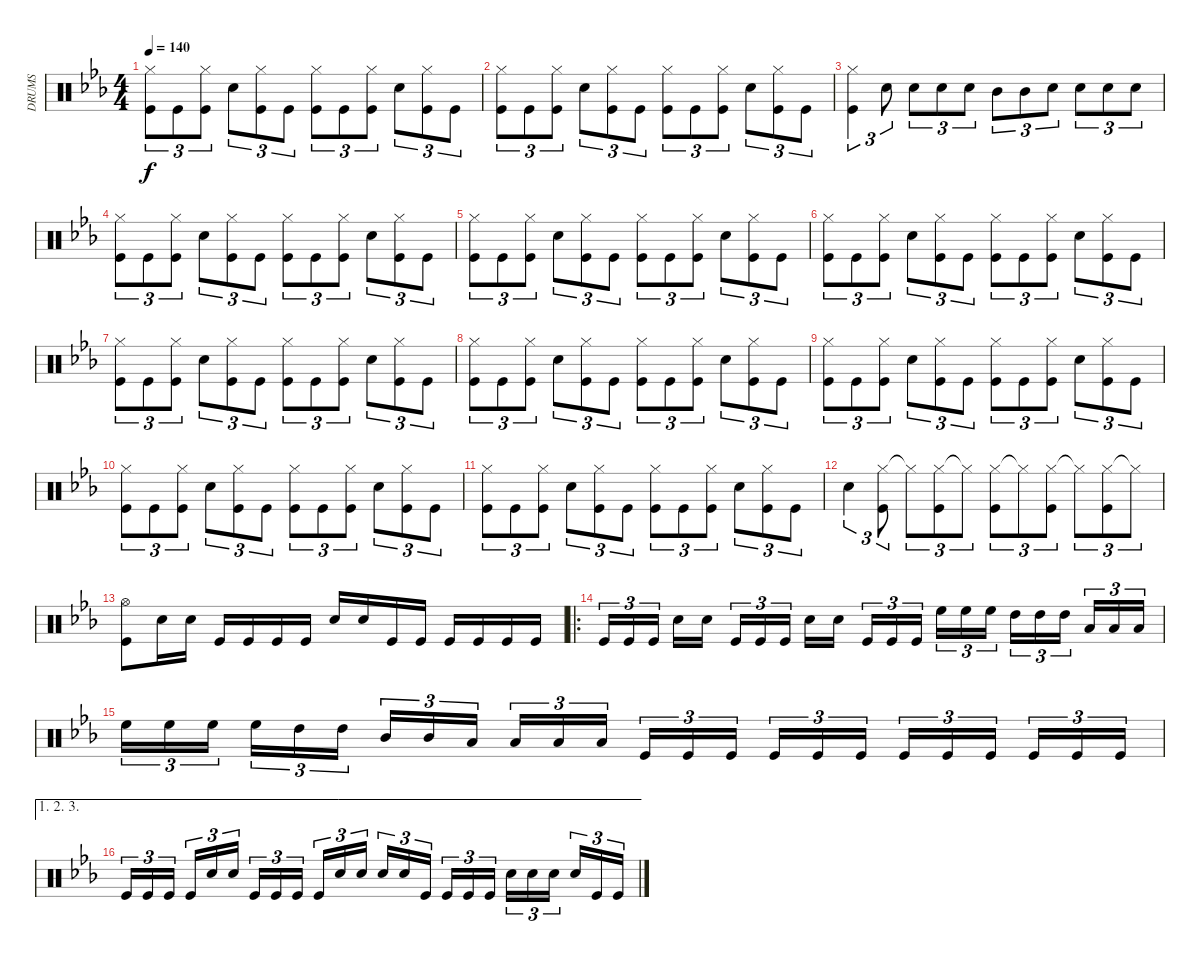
\track ("DRUMS" "DRUMS") {instrument percussion}
\staff {score}
\articulation defaults
\ts (4 4)
\tempo 140
\clef neutral
\ks eb
("Hi-Hat (closed)" "Kick (hit)").8{tu (3 2) dy f} "Kick (hit)".8{tu (3 2)} ("Hi-Hat (closed)" "Kick (hit)").8{tu (3 2)} "Snare (hit) 2".8{tu (3 2)} ("Hi-Hat (closed)" "Kick (hit)").8{tu (3 2)} "Kick (hit)".8{tu (3 2)} ("Hi-Hat (closed)" "Kick (hit)").8{tu (3 2)} "Kick (hit)".8{tu (3 2)} ("Hi-Hat (closed)" "Kick (hit)").8{tu (3 2)} "Snare (hit) 2".8{tu (3 2)} ("Hi-Hat (closed)" "Kick (hit)").8{tu (3 2)} "Kick (hit)".8{tu (3 2)} |
("Hi-Hat (closed)" "Kick (hit)").8{tu (3 2)} "Kick (hit)".8{tu (3 2)} ("Hi-Hat (closed)" "Kick (hit)").8{tu (3 2)} "Snare (hit) 2".8{tu (3 2)} ("Hi-Hat (closed)" "Kick (hit)").8{tu (3 2)} "Kick (hit)".8{tu (3 2)} ("Hi-Hat (closed)" "Kick (hit)").8{tu (3 2)} "Kick (hit)".8{tu (3 2)} ("Hi-Hat (closed)" "Kick (hit)").8{tu (3 2)} "Snare (hit) 2".8{tu (3 2)} ("Hi-Hat (closed)" "Kick (hit)").8{tu (3 2)} "Kick (hit)".8{tu (3 2)} |
("Hi-Hat (closed)" "Kick (hit)").4{tu (3 2)} "Snare (hit) 2".8{tu (3 2)} "Snare (hit) 2".8{tu (3 2)} "Snare (hit) 2".8{tu (3 2)} "Snare (hit) 2".8{tu (3 2)} "Mid Tom (hit)".8{tu (3 2)} "Mid Tom (hit)".8{tu (3 2)} "Snare (hit) 2".8{tu (3 2)} "Snare (hit) 2".8{tu (3 2)} "Snare (hit) 2".8{tu (3 2)} "Snare (hit) 2".8{tu (3 2)} |
("Hi-Hat (closed)" "Kick (hit)").8{tu (3 2)} "Kick (hit)".8{tu (3 2)} ("Hi-Hat (closed)" "Kick (hit)").8{tu (3 2)} "Snare (hit) 2".8{tu (3 2)} ("Hi-Hat (closed)" "Kick (hit)").8{tu (3 2)} "Kick (hit)".8{tu (3 2)} ("Hi-Hat (closed)" "Kick (hit)").8{tu (3 2)} "Kick (hit)".8{tu (3 2)} ("Hi-Hat (closed)" "Kick (hit)").8{tu (3 2)} "Snare (hit) 2".8{tu (3 2)} ("Hi-Hat (closed)" "Kick (hit)").8{tu (3 2)} "Kick (hit)".8{tu (3 2)} |
("Hi-Hat (closed)" "Kick (hit)").8{tu (3 2)} "Kick (hit)".8{tu (3 2)} ("Hi-Hat (closed)" "Kick (hit)").8{tu (3 2)} "Snare (hit) 2".8{tu (3 2)} ("Hi-Hat (closed)" "Kick (hit)").8{tu (3 2)} "Kick (hit)".8{tu (3 2)} ("Hi-Hat (closed)" "Kick (hit)").8{tu (3 2)} "Kick (hit)".8{tu (3 2)} ("Hi-Hat (closed)" "Kick (hit)").8{tu (3 2)} "Snare (hit) 2".8{tu (3 2)} ("Hi-Hat (closed)" "Kick (hit)").8{tu (3 2)} "Kick (hit)".8{tu (3 2)} |
("Hi-Hat (closed)" "Kick (hit)").8{tu (3 2)} "Kick (hit)".8{tu (3 2)} ("Hi-Hat (closed)" "Kick (hit)").8{tu (3 2)} "Snare (hit) 2".8{tu (3 2)} ("Hi-Hat (closed)" "Kick (hit)").8{tu (3 2)} "Kick (hit)".8{tu (3 2)} ("Hi-Hat (closed)" "Kick (hit)").8{tu (3 2)} "Kick (hit)".8{tu (3 2)} ("Hi-Hat (closed)" "Kick (hit)").8{tu (3 2)} "Snare (hit) 2".8{tu (3 2)} ("Hi-Hat (closed)" "Kick (hit)").8{tu (3 2)} "Kick (hit)".8{tu (3 2)} |
("Hi-Hat (closed)" "Kick (hit)").8{tu (3 2)} "Kick (hit)".8{tu (3 2)} ("Hi-Hat (closed)" "Kick (hit)").8{tu (3 2)} "Snare (hit) 2".8{tu (3 2)} ("Hi-Hat (closed)" "Kick (hit)").8{tu (3 2)} "Kick (hit)".8{tu (3 2)} ("Hi-Hat (closed)" "Kick (hit)").8{tu (3 2)} "Kick (hit)".8{tu (3 2)} ("Hi-Hat (closed)" "Kick (hit)").8{tu (3 2)} "Snare (hit) 2".8{tu (3 2)} ("Hi-Hat (closed)" "Kick (hit)").8{tu (3 2)} "Kick (hit)".8{tu (3 2)} |
("Hi-Hat (closed)" "Kick (hit)").8{tu (3 2)} "Kick (hit)".8{tu (3 2)} ("Hi-Hat (closed)" "Kick (hit)").8{tu (3 2)} "Snare (hit) 2".8{tu (3 2)} ("Hi-Hat (closed)" "Kick (hit)").8{tu (3 2)} "Kick (hit)".8{tu (3 2)} ("Hi-Hat (closed)" "Kick (hit)").8{tu (3 2)} "Kick (hit)".8{tu (3 2)} ("Hi-Hat (closed)" "Kick (hit)").8{tu (3 2)} "Snare (hit) 2".8{tu (3 2)} ("Hi-Hat (closed)" "Kick (hit)").8{tu (3 2)} "Kick (hit)".8{tu (3 2)} |
("Hi-Hat (closed)" "Kick (hit)").8{tu (3 2)} "Kick (hit)".8{tu (3 2)} ("Hi-Hat (closed)" "Kick (hit)").8{tu (3 2)} "Snare (hit) 2".8{tu (3 2)} ("Hi-Hat (closed)" "Kick (hit)").8{tu (3 2)} "Kick (hit)".8{tu (3 2)} ("Hi-Hat (closed)" "Kick (hit)").8{tu (3 2)} "Kick (hit)".8{tu (3 2)} ("Hi-Hat (closed)" "Kick (hit)").8{tu (3 2)} "Snare (hit) 2".8{tu (3 2)} ("Hi-Hat (closed)" "Kick (hit)").8{tu (3 2)} "Kick (hit)".8{tu (3 2)} |
("Hi-Hat (closed)" "Kick (hit)").8{tu (3 2)} "Kick (hit)".8{tu (3 2)} ("Hi-Hat (closed)" "Kick (hit)").8{tu (3 2)} "Snare (hit) 2".8{tu (3 2)} ("Hi-Hat (closed)" "Kick (hit)").8{tu (3 2)} "Kick (hit)".8{tu (3 2)} ("Hi-Hat (closed)" "Kick (hit)").8{tu (3 2)} "Kick (hit)".8{tu (3 2)} ("Hi-Hat (closed)" "Kick (hit)").8{tu (3 2)} "Snare (hit) 2".8{tu (3 2)} ("Hi-Hat (closed)" "Kick (hit)").8{tu (3 2)} "Kick (hit)".8{tu (3 2)} |
("Hi-Hat (closed)" "Kick (hit)").8{tu (3 2)} "Kick (hit)".8{tu (3 2)} ("Hi-Hat (closed)" "Kick (hit)").8{tu (3 2)} "Snare (hit) 2".8{tu (3 2)} ("Hi-Hat (closed)" "Kick (hit)").8{tu (3 2)} "Kick (hit)".8{tu (3 2)} ("Hi-Hat (closed)" "Kick (hit)").8{tu (3 2)} "Kick (hit)".8{tu (3 2)} ("Hi-Hat (closed)" "Kick (hit)").8{tu (3 2)} "Snare (hit) 2".8{tu (3 2)} ("Hi-Hat (closed)" "Kick (hit)").8{tu (3 2)} "Kick (hit)".8{tu (3 2)} |
"Snare (hit) 2".4{tu (3 2)} ("Hi-Hat (closed)" "Kick (hit)").8{tu (3 2)} "Hi-Hat (closed)"{t}.8{tu (3 2)} ("Hi-Hat (closed)" "Kick (hit)").8{tu (3 2)} "Hi-Hat (closed)"{t}.8{tu (3 2)} ("Hi-Hat (closed)" "Kick (hit)").8{tu (3 2)} "Hi-Hat (closed)"{t}.8{tu (3 2)} ("Hi-Hat (closed)" "Kick (hit)").8{tu (3 2)} "Hi-Hat (closed)"{t}.8{tu (3 2)} ("Hi-Hat (closed)" "Kick (hit)").8{tu (3 2)} "Hi-Hat (closed)"{t}.8{tu (3 2)} |
("Hi-Hat (open)" "Kick (hit)").8 "Snare (hit) 2".16 "Snare (hit) 2".16 "Kick (hit)".16 "Kick (hit)".16 "Kick (hit)".16 "Kick (hit)".16 "Snare (hit) 2".16 "Snare (hit) 2".16 "Kick (hit)".16 "Kick (hit)".16 "Kick (hit)".16 "Kick (hit)".16 "Kick (hit)".16 "Kick (hit)".16 |
\ro "Kick (hit)".16{tu (3 2)} "Kick (hit)".16{tu (3 2)} "Kick (hit)".16{tu (3 2) beam splitsecondary} "Snare (hit) 2".16 "Snare (hit) 2".16 "Kick (hit)".16{tu (3 2)} "Kick (hit)".16{tu (3 2)} "Kick (hit)".16{tu (3 2) beam splitsecondary} "Snare (hit) 2".16 "Snare (hit) 2".16 "Kick (hit)".16{tu (3 2)} "Kick (hit)".16{tu (3 2)} "Kick (hit)".16{tu (3 2) beam splitsecondary} "High Floor Tom (hit)".16{tu (3 2)} "High Floor Tom (hit)".16{tu (3 2)} "High Floor Tom (hit)".16{tu (3 2)} "High Tom (hit)".16{tu (3 2)} "High Tom (hit)".16{tu (3 2)} "High Tom (hit)".16{tu (3 2) beam splitsecondary} "Low Tom (hit)".16{tu (3 2)} "Low Tom (hit)".16{tu (3 2)} "Low Tom (hit)".16{tu (3 2)}
|
"High Floor Tom (hit)".16{tu (3 2)} "High Floor Tom (hit)".16{tu (3 2)} "High Floor Tom (hit)".16{tu (3 2) beam splitsecondary} "High Floor Tom (hit)".16{tu (3 2)} "High Tom (hit)".16{tu (3 2)} "High Tom (hit)".16{tu (3 2)} "Mid Tom (hit)".16{tu (3 2)} "Mid Tom (hit)".16{tu (3 2)} "Low Tom (hit)".16{tu (3 2) beam splitsecondary} "Low Tom (hit)".16{tu (3 2)} "Low Tom (hit)".16{tu (3 2)} "Low Tom (hit)".16{tu (3 2)} "Kick (hit)".16{tu (3 2)} "Kick (hit)".16{tu (3 2)} "Kick (hit)".16{tu (3 2) beam splitsecondary} "Kick (hit)".16{tu (3 2)} "Kick (hit)".16{tu (3 2)} "Kick (hit)".16{tu (3 2)} "Kick (hit)".16{tu (3 2)} "Kick (hit)".16{tu (3 2)} "Kick (hit)".16{tu (3 2) beam splitsecondary} "Kick (hit)".16{tu (3 2)} "Kick (hit)".16{tu (3 2)} "Kick (hit)".16{tu (3 2)} |
\ae (1 2 3)
"Kick (hit)".16{tu (3 2)} "Kick (hit)".16{tu (3 2)} "Kick (hit)".16{tu (3 2) beam splitsecondary} "Kick (hit)".16{tu (3 2)} "Snare (hit) 2".16{tu (3 2)} "Snare (hit) 2".16{tu (3 2)} "Kick (hit)".16{tu (3 2)} "Kick (hit)".16{tu (3 2)} "Kick (hit)".16{tu (3 2) beam splitsecondary} "Kick (hit)".16{tu (3 2)} "Snare (hit) 2".16{tu (3 2)} "Snare (hit) 2".16{tu (3 2)} "Snare (hit) 2".16{tu (3 2)} "Snare (hit) 2".16{tu (3 2)} "Kick (hit)".16{tu (3 2) beam splitsecondary} "Kick (hit)".16{tu (3 2)} "Kick (hit)".16{tu (3 2)} "Kick (hit)".16{tu (3 2)} "Snare (hit) 2".16{tu (3 2)} "Snare (hit) 2".16{tu (3 2)} "Snare (hit) 2".16{tu (3 2) beam splitsecondary} "Snare (hit) 2".16{tu (3 2)} "Kick (hit)".16{tu (3 2)} "Kick (hit)".16{tu (3 2)}
